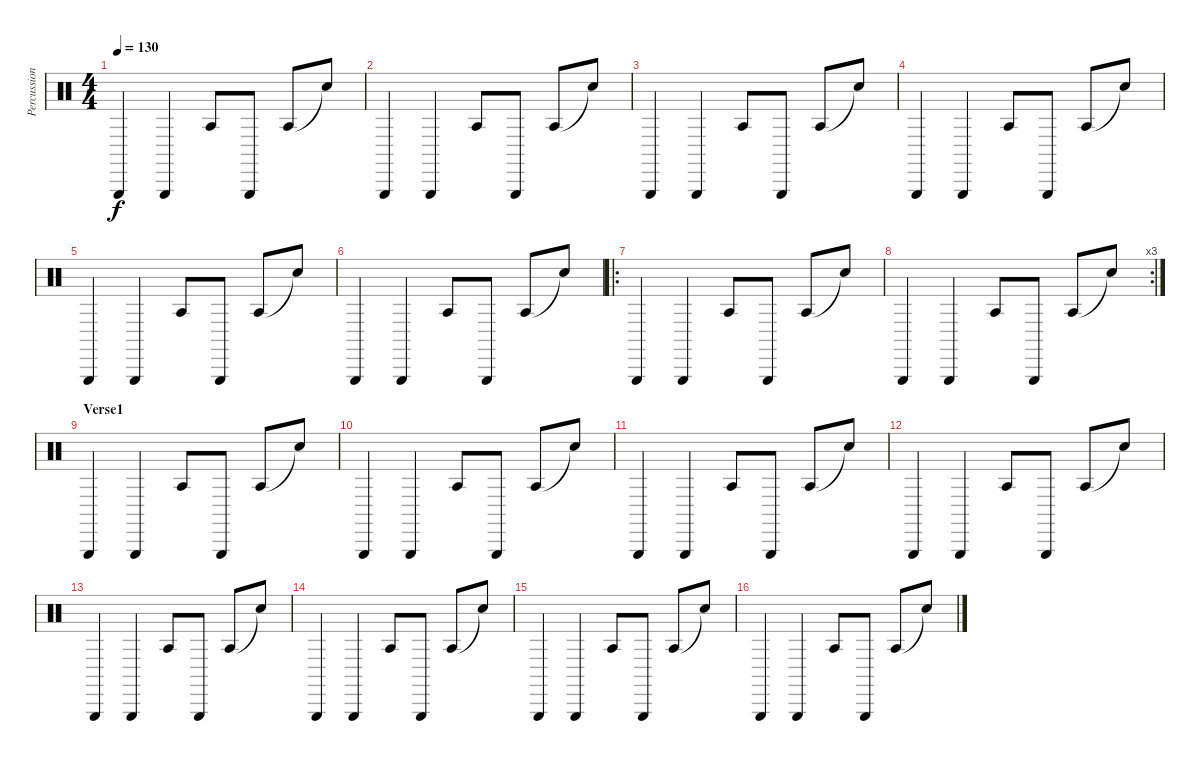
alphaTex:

\track ("Percussion" "Percussion") {instrument percussion}
\staff {score}
\articulation defaults
\ts (4 4)
\tempo 130
\clef neutral
\ks c "Triangle (hit)".4{dy f} "Triangle (hit)".4 "Agogo tow (hit)".8 "Triangle (hit)".8 "Agogo tow (hit)".8 "Snare (hit)"{t}.8
|
"Triangle (hit)".4 "Triangle (hit)".4 "Agogo tow (hit)".8 "Triangle (hit)".8 "Agogo tow (hit)".8 "Snare (hit)"{t}.8 |
"Triangle (hit)".4 "Triangle (hit)".4 "Agogo tow (hit)".8 "Triangle (hit)".8 "Agogo tow (hit)".8 "Snare (hit)"{t}.8 |
"Triangle (hit)".4 "Triangle (hit)".4 "Agogo tow (hit)".8 "Triangle (hit)".8 "Agogo tow (hit)".8 "Snare (hit)"{t}.8 |
"Triangle (hit)".4 "Triangle (hit)".4 "Agogo tow (hit)".8 "Triangle (hit)".8 "Agogo tow (hit)".8 "Snare (hit)"{t}.8 |
"Triangle (hit)".4 "Triangle (hit)".4 "Agogo tow (hit)".8 "Triangle (hit)".8 "Agogo tow (hit)".8 "Snare (hit)"{t}.8 |
\ro "Triangle (hit)".4 "Triangle (hit)".4 "Agogo tow (hit)".8 "Triangle (hit)".8 "Agogo tow (hit)".8 "Snare (hit)"{t}.8
|
\rc 3 "Triangle (hit)".4 "Triangle (hit)".4 "Agogo tow (hit)".8 "Triangle (hit)".8 "Agogo tow (hit)".8 "Snare (hit)"{t}.8
|
\section ("" "Verse1")
"Triangle (hit)".4 "Triangle (hit)".4 "Agogo tow (hit)".8 "Triangle (hit)".8 "Agogo tow (hit)".8 "Snare (hit)"{t}.8 |
"Triangle (hit)".4 "Triangle (hit)".4 "Agogo tow (hit)".8 "Triangle (hit)".8 "Agogo tow (hit)".8 "Snare (hit)"{t}.8 |
"Triangle (hit)".4 "Triangle (hit)".4 "Agogo tow (hit)".8 "Triangle (hit)".8 "Agogo tow (hit)".8 "Snare (hit)"{t}.8 |
"Triangle (hit)".4 "Triangle (hit)".4 "Agogo tow (hit)".8 "Triangle (hit)".8 "Agogo tow (hit)".8 "Snare (hit)"{t}.8 |
"Triangle (hit)".4 "Triangle (hit)".4 "Agogo tow (hit)".8 "Triangle (hit)".8 "Agogo tow (hit)".8 "Snare (hit)"{t}.8 |
"Triangle (hit)".4 "Triangle (hit)".4 "Agogo tow (hit)".8 "Triangle (hit)".8 "Agogo tow (hit)".8 "Snare (hit)"{t}.8 |
"Triangle (hit)".4 "Triangle (hit)".4 "Agogo tow (hit)".8 "Triangle (hit)".8 "Agogo tow (hit)".8 "Snare (hit)"{t}.8 |
"Triangle (hit)".4 "Triangle (hit)".4 "Agogo tow (hit)".8 "Triangle (hit)".8 "Agogo tow (hit)".8 "Snare (hit)"{t}.8
